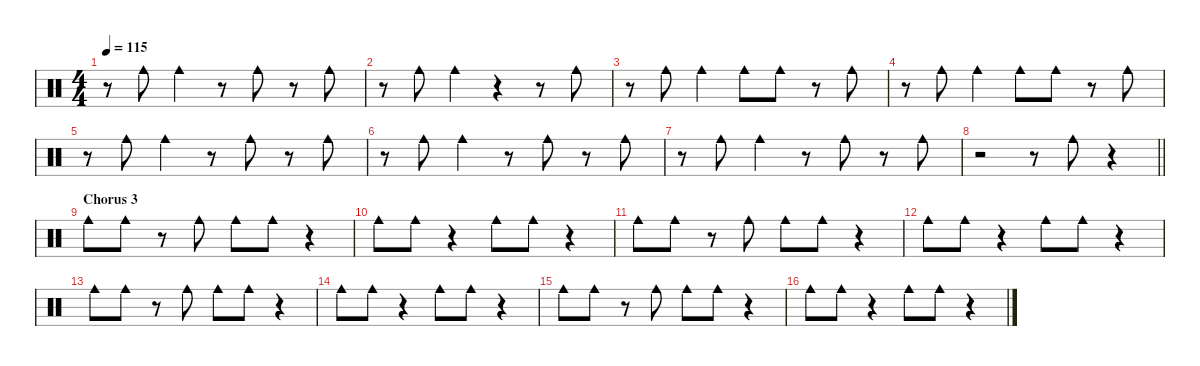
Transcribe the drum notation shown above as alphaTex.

\defaultSystemsLayout 4
\hideDynamics
\bracketExtendMode nobrackets
\singleTrackTrackNamePolicy hidden
\multiTrackTrackNamePolicy hidden
\otherSystemsTrackNameOrientation horizontal
\track ("Cowbell" "drm.") {defaultSystemsLayout 8 instrument percussion}
\staff {score}
\articulation defaults
\ts (4 4)
\tempo 115
\clef neutral
\ks c
r.8{dy f} "Cowbell medium (hit)".8 "Cowbell medium (hit)".4 r.8 "Cowbell medium (hit)".8 r.8 "Cowbell medium (hit)".8 |
r.8 "Cowbell medium (hit)".8 "Cowbell medium (hit)".4 r.4 r.8 "Cowbell medium (hit)".8 |
r.8 "Cowbell medium (hit)".8 "Cowbell medium (hit)".4 "Cowbell medium (hit)".8 "Cowbell medium (hit)".8 r.8 "Cowbell medium (hit)".8 |
r.8 "Cowbell medium (hit)".8 "Cowbell medium (hit)".4 "Cowbell medium (hit)".8 "Cowbell medium (hit)".8 r.8 "Cowbell medium (hit)".8 |
r.8 "Cowbell medium (hit)".8 "Cowbell medium (hit)".4 r.8 "Cowbell medium (hit)".8 r.8 "Cowbell medium (hit)".8 |
r.8 "Cowbell medium (hit)".8 "Cowbell medium (hit)".4 r.8 "Cowbell medium (hit)".8 r.8 "Cowbell medium (hit)".8 |
r.8 "Cowbell medium (hit)".8 "Cowbell medium (hit)".4 r.8 "Cowbell medium (hit)".8 r.8 "Cowbell medium (hit)".8 |
\barLineRight lightlight
r.2 r.8 "Cowbell medium (hit)".8 r.4 |
\section ("" "Chorus 3")
"Cowbell medium (hit)".8 "Cowbell medium (hit)".8 r.8 "Cowbell medium (hit)".8 "Cowbell medium (hit)".8 "Cowbell medium (hit)".8 r.4 |
"Cowbell medium (hit)".8 "Cowbell medium (hit)".8 r.4 "Cowbell medium (hit)".8 "Cowbell medium (hit)".8 r.4 |
"Cowbell medium (hit)".8 "Cowbell medium (hit)".8 r.8 "Cowbell medium (hit)".8 "Cowbell medium (hit)".8 "Cowbell medium (hit)".8 r.4 |
"Cowbell medium (hit)".8 "Cowbell medium (hit)".8 r.4 "Cowbell medium (hit)".8 "Cowbell medium (hit)".8 r.4 |
"Cowbell medium (hit)".8 "Cowbell medium (hit)".8 r.8 "Cowbell medium (hit)".8 "Cowbell medium (hit)".8 "Cowbell medium (hit)".8 r.4 |
"Cowbell medium (hit)".8 "Cowbell medium (hit)".8 r.4 "Cowbell medium (hit)".8 "Cowbell medium (hit)".8 r.4 |
"Cowbell medium (hit)".8 "Cowbell medium (hit)".8 r.8 "Cowbell medium (hit)".8 "Cowbell medium (hit)".8 "Cowbell medium (hit)".8 r.4 |
"Cowbell medium (hit)".8 "Cowbell medium (hit)".8 r.4 "Cowbell medium (hit)".8 "Cowbell medium (hit)".8 r.4
